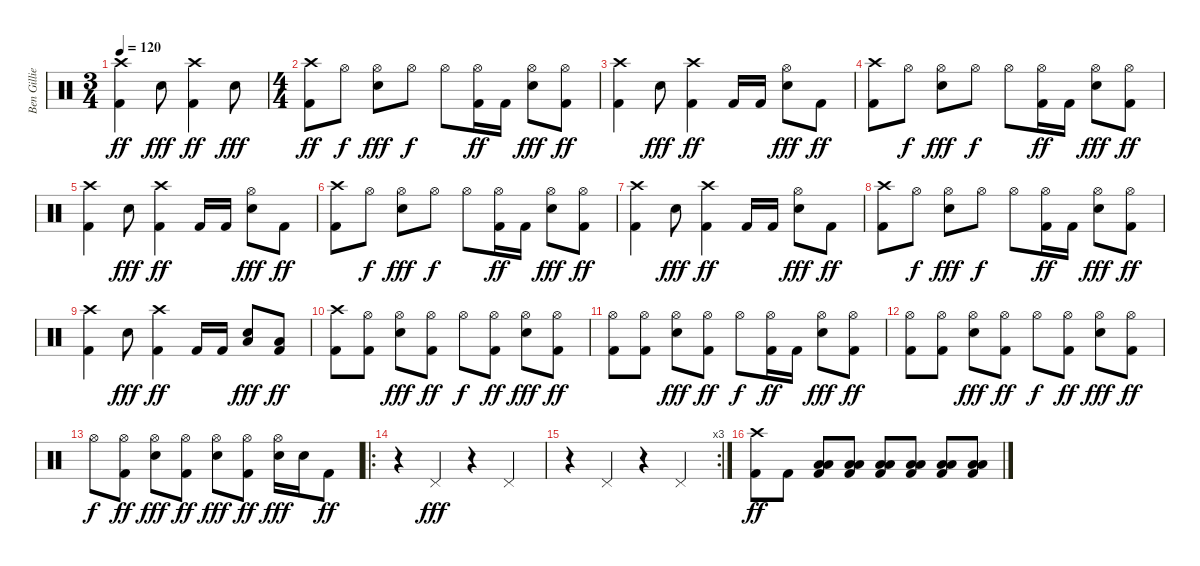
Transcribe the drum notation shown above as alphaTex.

\track ("Ben Gillies" "Ben Gillie") {instrument percussion}
\staff {score}
\articulation defaults
\ts (3 4)
\tempo 120
\clef neutral
\ks c
("Crash high (hit)" "Kick (hit) 2").4{dy ff} "Electric Snare (hit)".8{dy fff} ("Crash high (hit)" "Kick (hit) 2").4{dy ff} "Electric Snare (hit)".8{dy fff} |
\ts (4 4)
("Crash high (hit)" "Kick (hit) 2").8{dy ff} "Hi-Hat (open)".8{dy f} ("Hi-Hat (open)" "Electric Snare (hit)").8{dy fff} "Hi-Hat (open)".8{dy f} "Hi-Hat (open)".8 ("Hi-Hat (open)" "Kick (hit) 2").16{dy ff} "Kick (hit) 2".16 ("Hi-Hat (open)" "Electric Snare (hit)").8{dy fff} ("Hi-Hat (open)" "Kick (hit) 2").8{dy ff} |
("Crash high (hit)" "Kick (hit) 2").4 "Electric Snare (hit)".8{dy fff} ("Crash high (hit)" "Kick (hit) 2").4{dy ff} "Kick (hit) 2".16 "Kick (hit) 2".16 ("Hi-Hat (open)" "Electric Snare (hit)").8{dy fff} "Kick (hit) 2".8{dy ff} |
("Crash high (hit)" "Kick (hit) 2").8 "Hi-Hat (open)".8{dy f} ("Hi-Hat (open)" "Electric Snare (hit)").8{dy fff} "Hi-Hat (open)".8{dy f} "Hi-Hat (open)".8 ("Hi-Hat (open)" "Kick (hit) 2").16{dy ff} "Kick (hit) 2".16 ("Hi-Hat (open)" "Electric Snare (hit)").8{dy fff} ("Hi-Hat (open)" "Kick (hit) 2").8{dy ff} |
("Crash high (hit)" "Kick (hit) 2").4 "Electric Snare (hit)".8{dy fff} ("Crash high (hit)" "Kick (hit) 2").4{dy ff} "Kick (hit) 2".16 "Kick (hit) 2".16 ("Hi-Hat (open)" "Electric Snare (hit)").8{dy fff} "Kick (hit) 2".8{dy ff} |
("Crash high (hit)" "Kick (hit) 2").8 "Hi-Hat (open)".8{dy f} ("Hi-Hat (open)" "Electric Snare (hit)").8{dy fff} "Hi-Hat (open)".8{dy f} "Hi-Hat (open)".8 ("Hi-Hat (open)" "Kick (hit) 2").16{dy ff} "Kick (hit) 2".16 ("Hi-Hat (open)" "Electric Snare (hit)").8{dy fff} ("Hi-Hat (open)" "Kick (hit) 2").8{dy ff} |
("Crash high (hit)" "Kick (hit) 2").4 "Electric Snare (hit)".8{dy fff} ("Crash high (hit)" "Kick (hit) 2").4{dy ff} "Kick (hit) 2".16 "Kick (hit) 2".16 ("Hi-Hat (open)" "Electric Snare (hit)").8{dy fff} "Kick (hit) 2".8{dy ff} |
("Crash high (hit)" "Kick (hit) 2").8 "Hi-Hat (open)".8{dy f} ("Hi-Hat (open)" "Electric Snare (hit)").8{dy fff} "Hi-Hat (open)".8{dy f} "Hi-Hat (open)".8 ("Hi-Hat (open)" "Kick (hit) 2").16{dy ff} "Kick (hit) 2".16 ("Hi-Hat (open)" "Electric Snare (hit)").8{dy fff} ("Hi-Hat (open)" "Kick (hit) 2").8{dy ff} |
("Crash high (hit)" "Kick (hit) 2").4 "Electric Snare (hit)".8{dy fff} ("Crash high (hit)" "Kick (hit) 2").4{dy ff} "Kick (hit) 2".16 "Kick (hit) 2".16 ("Low Floor Tom (hit)" "Electric Snare (hit)").8{dy fff} ("Low Floor Tom (hit)" "Kick (hit) 2").8{dy ff} |
("Crash high (hit)" "Kick (hit) 2").8 ("Hi-Hat (open)" "Kick (hit) 2").8 ("Hi-Hat (open)" "Electric Snare (hit)").8{dy fff} ("Hi-Hat (open)" "Kick (hit) 2").8{dy ff} "Hi-Hat (open)".8{dy f} ("Hi-Hat (open)" "Kick (hit) 2").8{dy ff} ("Hi-Hat (open)" "Electric Snare (hit)").8{dy fff} ("Hi-Hat (open)" "Kick (hit) 2").8{dy ff} |
("Hi-Hat (open)" "Kick (hit) 2").8 ("Hi-Hat (open)" "Kick (hit) 2").8 ("Hi-Hat (open)" "Electric Snare (hit)").8{dy fff} ("Hi-Hat (open)" "Kick (hit) 2").8{dy ff} "Hi-Hat (open)".8{dy f} ("Hi-Hat (open)" "Kick (hit) 2").16{dy ff} "Kick (hit) 2".16 ("Hi-Hat (open)" "Electric Snare (hit)").8{dy fff} ("Hi-Hat (open)" "Kick (hit) 2").8{dy ff} |
("Hi-Hat (open)" "Kick (hit) 2").8 ("Hi-Hat (open)" "Kick (hit) 2").8 ("Hi-Hat (open)" "Electric Snare (hit)").8{dy fff} ("Hi-Hat (open)" "Kick (hit) 2").8{dy ff} "Hi-Hat (open)".8{dy f} ("Hi-Hat (open)" "Kick (hit) 2").8{dy ff} ("Hi-Hat (open)" "Electric Snare (hit)").8{dy fff} ("Hi-Hat (open)" "Kick (hit) 2").8{dy ff} |
"Hi-Hat (open)".8{dy f} ("Hi-Hat (open)" "Kick (hit) 2").8{dy ff} ("Hi-Hat (open)" "Electric Snare (hit)").8{dy fff} ("Hi-Hat (open)" "Kick (hit) 2").8{dy ff} ("Hi-Hat (open)" "Electric Snare (hit)").8{dy fff} ("Hi-Hat (open)" "Kick (hit) 2").8{dy ff} ("Hi-Hat (open)" "Electric Snare (hit)").16{dy fff} "Electric Snare (hit)".16 "Kick (hit) 2".8{dy ff} |
\ro
r.4 "Pedal Hi-Hat (hit)".4{dy fff} r.4 "Pedal Hi-Hat (hit)".4 |
\rc 3
r.4 "Pedal Hi-Hat (hit)".4 r.4 "Pedal Hi-Hat (hit)".4 |
("Crash high (hit)" "Kick (hit) 2").8{dy ff} "Kick (hit) 2".8 ("Low Tom (hit)" "Low Floor Tom (hit)" "Kick (hit) 2").8 ("Low Tom (hit)" "Low Floor Tom (hit)" "Kick (hit) 2").8 ("Low Tom (hit)" "Low Floor Tom (hit)" "Kick (hit) 2").8 ("Low Tom (hit)" "Low Floor Tom (hit)" "Kick (hit) 2").8 ("Low Tom (hit)" "Low Floor Tom (hit)" "Kick (hit) 2").8 ("Low Tom (hit)" "Low Floor Tom (hit)" "Kick (hit) 2").8
